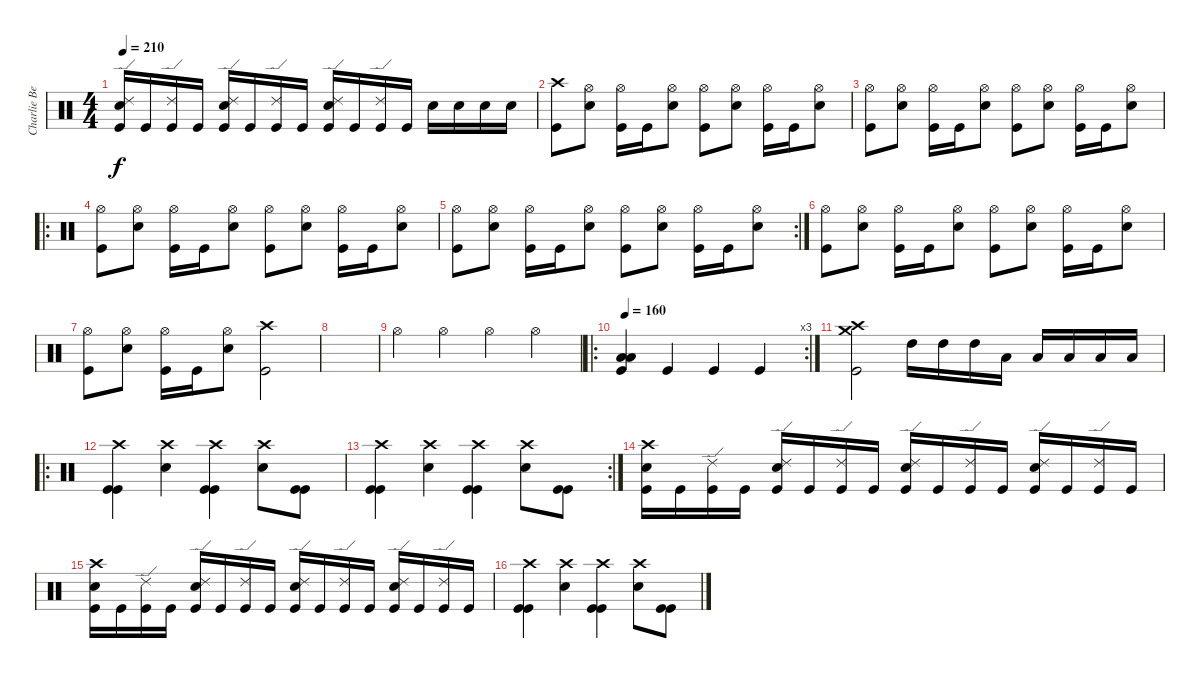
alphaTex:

\track ("Charlie Benante" "Charlie Be") {instrument percussion}
\staff {score}
\articulation defaults
\ts (4 4)
\tempo 210
\clef neutral
\ks c
("Ride (edge) 2" "Snare (hit) 2" "Kick (hit)").16{dy f} "Kick (hit)".16 ("Ride (edge) 2" "Kick (hit)").16 "Kick (hit)".16 ("Ride (edge) 2" "Snare (hit) 2" "Kick (hit)").16 "Kick (hit)".16 ("Ride (edge) 2" "Kick (hit)").16 "Kick (hit)".16 ("Ride (edge) 2" "Snare (hit) 2" "Kick (hit)").16 "Kick (hit)".16 ("Ride (edge) 2" "Kick (hit)").16 "Kick (hit)".16 "Snare (hit) 2".16 "Snare (hit) 2".16 "Snare (hit) 2".16 "Snare (hit) 2".16 |
("Crash high (hit)" "Kick (hit)").8 ("Hi-Hat (open)" "Snare (hit) 2").8 ("Hi-Hat (open)" "Kick (hit)").16 "Kick (hit)".16 ("Hi-Hat (open)" "Snare (hit) 2").8 ("Hi-Hat (open)" "Kick (hit)").8 ("Hi-Hat (open)" "Snare (hit) 2").8 ("Hi-Hat (open)" "Kick (hit)").16 "Kick (hit)".16 ("Hi-Hat (open)" "Snare (hit) 2").8 |
("Hi-Hat (open)" "Kick (hit)").8 ("Hi-Hat (open)" "Snare (hit) 2").8 ("Hi-Hat (open)" "Kick (hit)").16 "Kick (hit)".16 ("Hi-Hat (open)" "Snare (hit) 2").8 ("Hi-Hat (open)" "Kick (hit)").8 ("Hi-Hat (open)" "Snare (hit) 2").8 ("Hi-Hat (open)" "Kick (hit)").16 "Kick (hit)".16 ("Hi-Hat (open)" "Snare (hit) 2").8 |
\ro
("Hi-Hat (open)" "Kick (hit)").8 ("Hi-Hat (open)" "Snare (hit) 2").8 ("Hi-Hat (open)" "Kick (hit)").16 "Kick (hit)".16 ("Hi-Hat (open)" "Snare (hit) 2").8 ("Hi-Hat (open)" "Kick (hit)").8 ("Hi-Hat (open)" "Snare (hit) 2").8 ("Hi-Hat (open)" "Kick (hit)").16 "Kick (hit)".16 ("Hi-Hat (open)" "Snare (hit) 2").8 |
\rc 2
("Hi-Hat (open)" "Kick (hit)").8 ("Hi-Hat (open)" "Snare (hit) 2").8 ("Hi-Hat (open)" "Kick (hit)").16 "Kick (hit)".16 ("Hi-Hat (open)" "Snare (hit) 2").8 ("Hi-Hat (open)" "Kick (hit)").8 ("Hi-Hat (open)" "Snare (hit) 2").8 ("Hi-Hat (open)" "Kick (hit)").16 "Kick (hit)".16 ("Hi-Hat (open)" "Snare (hit) 2").8 |
("Hi-Hat (open)" "Kick (hit)").8 ("Hi-Hat (open)" "Snare (hit) 2").8 ("Hi-Hat (open)" "Kick (hit)").16 "Kick (hit)".16 ("Hi-Hat (open)" "Snare (hit) 2").8 ("Hi-Hat (open)" "Kick (hit)").8 ("Hi-Hat (open)" "Snare (hit) 2").8 ("Hi-Hat (open)" "Kick (hit)").16 "Kick (hit)".16 ("Hi-Hat (open)" "Snare (hit) 2").8 |
("Hi-Hat (open)" "Kick (hit)").8 ("Hi-Hat (open)" "Snare (hit) 2").8 ("Hi-Hat (open)" "Kick (hit)").16 "Kick (hit)".16 ("Hi-Hat (open)" "Snare (hit) 2").8 ("Crash high (hit)" "Kick (hit)").2 |
|
"Hi-Hat (open)".4 "Hi-Hat (open)".4 "Hi-Hat (open)".4 "Hi-Hat (open)".4 |
\ro
\rc 3
\tempo 160
("Low Floor Tom (hit)" "Low Tom (hit)" "Kick (hit)").4 "Kick (hit)".4 "Kick (hit)".4 "Kick (hit)".4 |
("Crash high (hit)" "Crash medium (hit)" "Kick (hit)").2 "High Tom (hit)".16 "High Tom (hit)".16 "High Tom (hit)".16 "Low Tom (hit)".16 "Low Tom (hit)".16 "Low Tom (hit)".16 "Low Floor Tom (hit)".16 "Low Floor Tom (hit)".16 |
\ro
("Crash high (hit)" "Kick (hit)" "Kick (hit)").4 ("Crash high (hit)" "Snare (hit) 2").4 ("Crash high (hit)" "Kick (hit)" "Kick (hit)").4 ("Crash high (hit)" "Snare (hit) 2").8 ("Kick (hit)" "Kick (hit)").8 |
\rc 2
("Crash high (hit)" "Kick (hit)" "Kick (hit)").4 ("Crash high (hit)" "Snare (hit) 2").4 ("Crash high (hit)" "Kick (hit)" "Kick (hit)").4 ("Crash high (hit)" "Snare (hit) 2").8 ("Kick (hit)" "Kick (hit)").8 |
("Crash high (hit)" "Snare (hit) 2" "Kick (hit)").16 "Kick (hit)".16 ("Ride (edge) 2" "Kick (hit)").16 "Kick (hit)".16 ("Ride (edge) 2" "Snare (hit) 2" "Kick (hit)").16 "Kick (hit)".16 ("Ride (edge) 2" "Kick (hit)").16 "Kick (hit)".16 ("Ride (edge) 2" "Snare (hit) 2" "Kick (hit)").16 "Kick (hit)".16 ("Ride (edge) 2" "Kick (hit)").16 "Kick (hit)".16 ("Ride (edge) 2" "Snare (hit) 2" "Kick (hit)").16 "Kick (hit)".16 ("Ride (edge) 2" "Kick (hit)").16 "Kick (hit)".16 |
("Crash high (hit)" "Snare (hit) 2" "Kick (hit)").16 "Kick (hit)".16 ("Ride (edge) 2" "Kick (hit)").16 "Kick (hit)".16 ("Ride (edge) 2" "Snare (hit) 2" "Kick (hit)").16 "Kick (hit)".16 ("Ride (edge) 2" "Kick (hit)").16 "Kick (hit)".16 ("Ride (edge) 2" "Snare (hit) 2" "Kick (hit)").16 "Kick (hit)".16 ("Ride (edge) 2" "Kick (hit)").16 "Kick (hit)".16 ("Ride (edge) 2" "Snare (hit) 2" "Kick (hit)").16 "Kick (hit)".16 ("Ride (edge) 2" "Kick (hit)").16 "Kick (hit)".16 |
("Crash high (hit)" "Kick (hit)" "Kick (hit)").4 ("Crash high (hit)" "Snare (hit) 2").4 ("Crash high (hit)" "Kick (hit)" "Kick (hit)").4 ("Crash high (hit)" "Snare (hit) 2").8 ("Kick (hit)" "Kick (hit)").8
